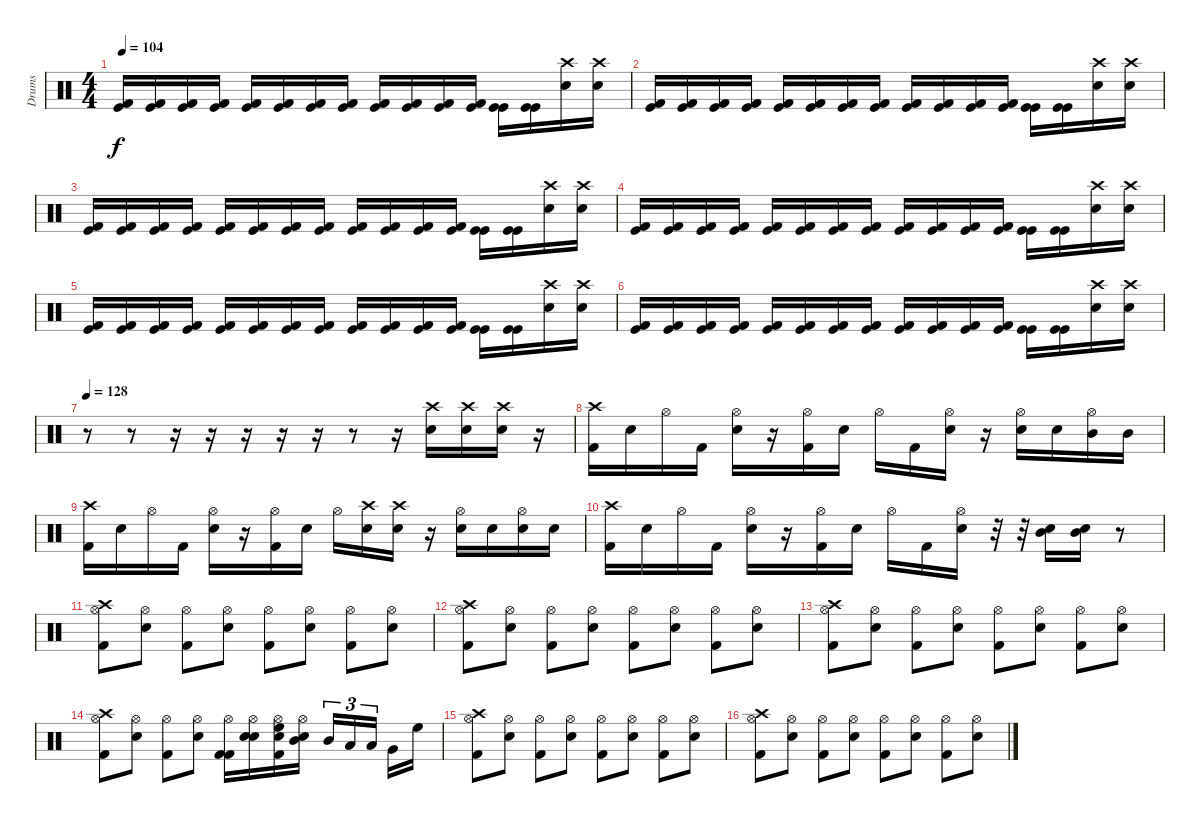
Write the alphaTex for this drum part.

\track ("Drums" "Drums") {instrument percussion}
\staff {score}
\articulation defaults
\ts (4 4)
\tempo 104
\clef neutral
\ks c
("Kick (hit) 2" "Kick (hit)").16{dy f} ("Kick (hit) 2" "Kick (hit)").16 ("Kick (hit) 2" "Kick (hit)").16 ("Kick (hit) 2" "Kick (hit)").16 ("Kick (hit) 2" "Kick (hit)").16 ("Kick (hit) 2" "Kick (hit)").16 ("Kick (hit) 2" "Kick (hit)").16 ("Kick (hit) 2" "Kick (hit)").16 ("Kick (hit) 2" "Kick (hit)").16 ("Kick (hit) 2" "Kick (hit)").16 ("Kick (hit) 2" "Kick (hit)").16 ("Kick (hit) 2" "Kick (hit)").16 ("Kick (hit)" "Kick (hit)").16 ("Kick (hit)" "Kick (hit)").16 ("Snare (hit) 2" "Crash high (hit)").16 ("Snare (hit) 2" "Crash high (hit)").16 |
("Kick (hit) 2" "Kick (hit)").16 ("Kick (hit) 2" "Kick (hit)").16 ("Kick (hit) 2" "Kick (hit)").16 ("Kick (hit) 2" "Kick (hit)").16 ("Kick (hit) 2" "Kick (hit)").16 ("Kick (hit) 2" "Kick (hit)").16 ("Kick (hit) 2" "Kick (hit)").16 ("Kick (hit) 2" "Kick (hit)").16 ("Kick (hit) 2" "Kick (hit)").16 ("Kick (hit) 2" "Kick (hit)").16 ("Kick (hit) 2" "Kick (hit)").16 ("Kick (hit) 2" "Kick (hit)").16 ("Kick (hit)" "Kick (hit)").16 ("Kick (hit)" "Kick (hit)").16 ("Snare (hit) 2" "Crash high (hit)").16 ("Snare (hit) 2" "Crash high (hit)").16 |
("Kick (hit) 2" "Kick (hit)").16 ("Kick (hit) 2" "Kick (hit)").16 ("Kick (hit) 2" "Kick (hit)").16 ("Kick (hit) 2" "Kick (hit)").16 ("Kick (hit) 2" "Kick (hit)").16 ("Kick (hit) 2" "Kick (hit)").16 ("Kick (hit) 2" "Kick (hit)").16 ("Kick (hit) 2" "Kick (hit)").16 ("Kick (hit) 2" "Kick (hit)").16 ("Kick (hit) 2" "Kick (hit)").16 ("Kick (hit) 2" "Kick (hit)").16 ("Kick (hit) 2" "Kick (hit)").16 ("Kick (hit)" "Kick (hit)").16 ("Kick (hit)" "Kick (hit)").16 ("Snare (hit) 2" "Crash high (hit)").16 ("Snare (hit) 2" "Crash high (hit)").16 |
("Kick (hit) 2" "Kick (hit)").16 ("Kick (hit) 2" "Kick (hit)").16 ("Kick (hit) 2" "Kick (hit)").16 ("Kick (hit) 2" "Kick (hit)").16 ("Kick (hit) 2" "Kick (hit)").16 ("Kick (hit) 2" "Kick (hit)").16 ("Kick (hit) 2" "Kick (hit)").16 ("Kick (hit) 2" "Kick (hit)").16 ("Kick (hit) 2" "Kick (hit)").16 ("Kick (hit) 2" "Kick (hit)").16 ("Kick (hit) 2" "Kick (hit)").16 ("Kick (hit) 2" "Kick (hit)").16 ("Kick (hit)" "Kick (hit)").16 ("Kick (hit)" "Kick (hit)").16 ("Snare (hit) 2" "Crash high (hit)").16 ("Snare (hit) 2" "Crash high (hit)").16 |
("Kick (hit) 2" "Kick (hit)").16 ("Kick (hit) 2" "Kick (hit)").16 ("Kick (hit) 2" "Kick (hit)").16 ("Kick (hit) 2" "Kick (hit)").16 ("Kick (hit) 2" "Kick (hit)").16 ("Kick (hit) 2" "Kick (hit)").16 ("Kick (hit) 2" "Kick (hit)").16 ("Kick (hit) 2" "Kick (hit)").16 ("Kick (hit) 2" "Kick (hit)").16 ("Kick (hit) 2" "Kick (hit)").16 ("Kick (hit) 2" "Kick (hit)").16 ("Kick (hit) 2" "Kick (hit)").16 ("Kick (hit)" "Kick (hit)").16 ("Kick (hit)" "Kick (hit)").16 ("Snare (hit) 2" "Crash high (hit)").16 ("Snare (hit) 2" "Crash high (hit)").16 |
("Kick (hit) 2" "Kick (hit)").16 ("Kick (hit) 2" "Kick (hit)").16 ("Kick (hit) 2" "Kick (hit)").16 ("Kick (hit) 2" "Kick (hit)").16 ("Kick (hit) 2" "Kick (hit)").16 ("Kick (hit) 2" "Kick (hit)").16 ("Kick (hit) 2" "Kick (hit)").16 ("Kick (hit) 2" "Kick (hit)").16 ("Kick (hit) 2" "Kick (hit)").16 ("Kick (hit) 2" "Kick (hit)").16 ("Kick (hit) 2" "Kick (hit)").16 ("Kick (hit) 2" "Kick (hit)").16 ("Kick (hit)" "Kick (hit)").16 ("Kick (hit)" "Kick (hit)").16 ("Snare (hit) 2" "Crash high (hit)").16 ("Snare (hit) 2" "Crash high (hit)").16 |
\tempo 128
r.8 r.8 r.16 r.16 r.16 r.16 r.16 r.8 r.16 ("Snare (hit) 2" "Crash high (hit)").16 ("Snare (hit) 2" "Crash high (hit)").16 ("Snare (hit) 2" "Crash high (hit)").16 r.16 |
("Kick (hit) 2" "Crash high (hit)").16 "Electric Snare (hit)".16 "Hi-Hat (open)".16 "Kick (hit) 2".16 ("Electric Snare (hit)" "Hi-Hat (open)").16 r.16 ("Kick (hit) 2" "Hi-Hat (open)").16 "Electric Snare (hit)".16 "Hi-Hat (open)".16 "Kick (hit) 2".16 ("Electric Snare (hit)" "Hi-Hat (open)").16 r.16 ("Electric Snare (hit)" "Hi-Hat (open)").16 "Electric Snare (hit)".16 ("Mid Tom (hit)" "Hi-Hat (open)").16 "Mid Tom (hit)".16 |
("Kick (hit) 2" "Crash high (hit)").16 "Electric Snare (hit)".16 "Hi-Hat (open)".16 "Kick (hit) 2".16 ("Electric Snare (hit)" "Hi-Hat (open)").16 r.16 ("Kick (hit) 2" "Hi-Hat (open)").16 "Electric Snare (hit)".16 "Hi-Hat (open)".16 ("Snare (hit) 2" "Crash high (hit)").16 ("Snare (hit) 2" "Crash high (hit)").16 r.16 ("Electric Snare (hit)" "Hi-Hat (open)").16 "Electric Snare (hit)".16 ("Electric Snare (hit)" "Hi-Hat (open)").16 "Electric Snare (hit)".16 |
("Kick (hit) 2" "Crash high (hit)").16 "Electric Snare (hit)".16 "Hi-Hat (open)".16 "Kick (hit) 2".16 ("Electric Snare (hit)" "Hi-Hat (open)").16 r.16 ("Kick (hit) 2" "Hi-Hat (open)").16 "Electric Snare (hit)".16 "Hi-Hat (open)".16 "Kick (hit) 2".16 ("Electric Snare (hit)" "Hi-Hat (open)").16 r.32 r.32 ("Electric Snare (hit)" "Mid Tom (hit)").16 ("Electric Snare (hit)" "Mid Tom (hit)").16 r.8 |
("Crash high (hit)" "Hi-Hat (open)" "Kick (hit) 2").8 ("Hi-Hat (open)" "Snare (hit) 2").8 ("Hi-Hat (open)" "Kick (hit) 2").8 ("Hi-Hat (open)" "Snare (hit) 2").8 ("Hi-Hat (open)" "Kick (hit) 2").8 ("Hi-Hat (open)" "Snare (hit) 2").8 ("Hi-Hat (open)" "Kick (hit) 2").8 ("Hi-Hat (open)" "Snare (hit) 2").8 |
("Crash high (hit)" "Hi-Hat (open)" "Kick (hit) 2").8 ("Hi-Hat (open)" "Snare (hit) 2").8 ("Hi-Hat (open)" "Kick (hit) 2").8 ("Hi-Hat (open)" "Snare (hit) 2").8 ("Hi-Hat (open)" "Kick (hit) 2").8 ("Hi-Hat (open)" "Snare (hit) 2").8 ("Hi-Hat (open)" "Kick (hit) 2").8 ("Hi-Hat (open)" "Snare (hit) 2").8 |
("Crash high (hit)" "Hi-Hat (open)" "Kick (hit) 2").8 ("Hi-Hat (open)" "Snare (hit) 2").8 ("Hi-Hat (open)" "Kick (hit) 2").8 ("Hi-Hat (open)" "Snare (hit) 2").8 ("Hi-Hat (open)" "Kick (hit) 2").8 ("Hi-Hat (open)" "Snare (hit) 2").8 ("Hi-Hat (open)" "Kick (hit) 2").8 ("Hi-Hat (open)" "Snare (hit) 2").8 |
("Crash high (hit)" "Hi-Hat (open)" "Kick (hit) 2").8 ("Hi-Hat (open)" "Snare (hit) 2").8 ("Hi-Hat (open)" "Kick (hit) 2").8 ("Hi-Hat (open)" "Snare (hit) 2").8 ("Hi-Hat (open)" "Kick (hit) 2" "Kick (hit) 2").16 ("Hi-Hat (open)" "Snare (hit) 2" "Electric Snare (hit)").16 ("Hi-Hat (open)" "High Floor Tom (hit)" "Electric Snare (hit)" "Kick (hit) 2").16 ("Hi-Hat (open)" "Snare (hit) 2" "Mid Tom (hit)").16 "Mid Tom (hit)".16{tu (3 2)} "Low Tom (hit)".16{tu (3 2)} "Low Tom (hit)".16{tu (3 2)} "Very Low Tom (hit)".16 "High Floor Tom (hit)".16 |
("Crash high (hit)" "Hi-Hat (open)" "Kick (hit) 2").8 ("Hi-Hat (open)" "Snare (hit) 2").8 ("Hi-Hat (open)" "Kick (hit) 2").8 ("Hi-Hat (open)" "Snare (hit) 2").8 ("Hi-Hat (open)" "Kick (hit) 2").8 ("Hi-Hat (open)" "Snare (hit) 2").8 ("Hi-Hat (open)" "Kick (hit) 2").8 ("Hi-Hat (open)" "Snare (hit) 2").8 |
("Crash high (hit)" "Hi-Hat (open)" "Kick (hit) 2").8 ("Hi-Hat (open)" "Snare (hit) 2").8 ("Hi-Hat (open)" "Kick (hit) 2").8 ("Hi-Hat (open)" "Snare (hit) 2").8 ("Hi-Hat (open)" "Kick (hit) 2").8 ("Hi-Hat (open)" "Snare (hit) 2").8 ("Hi-Hat (open)" "Kick (hit) 2").8 ("Hi-Hat (open)" "Snare (hit) 2").8
